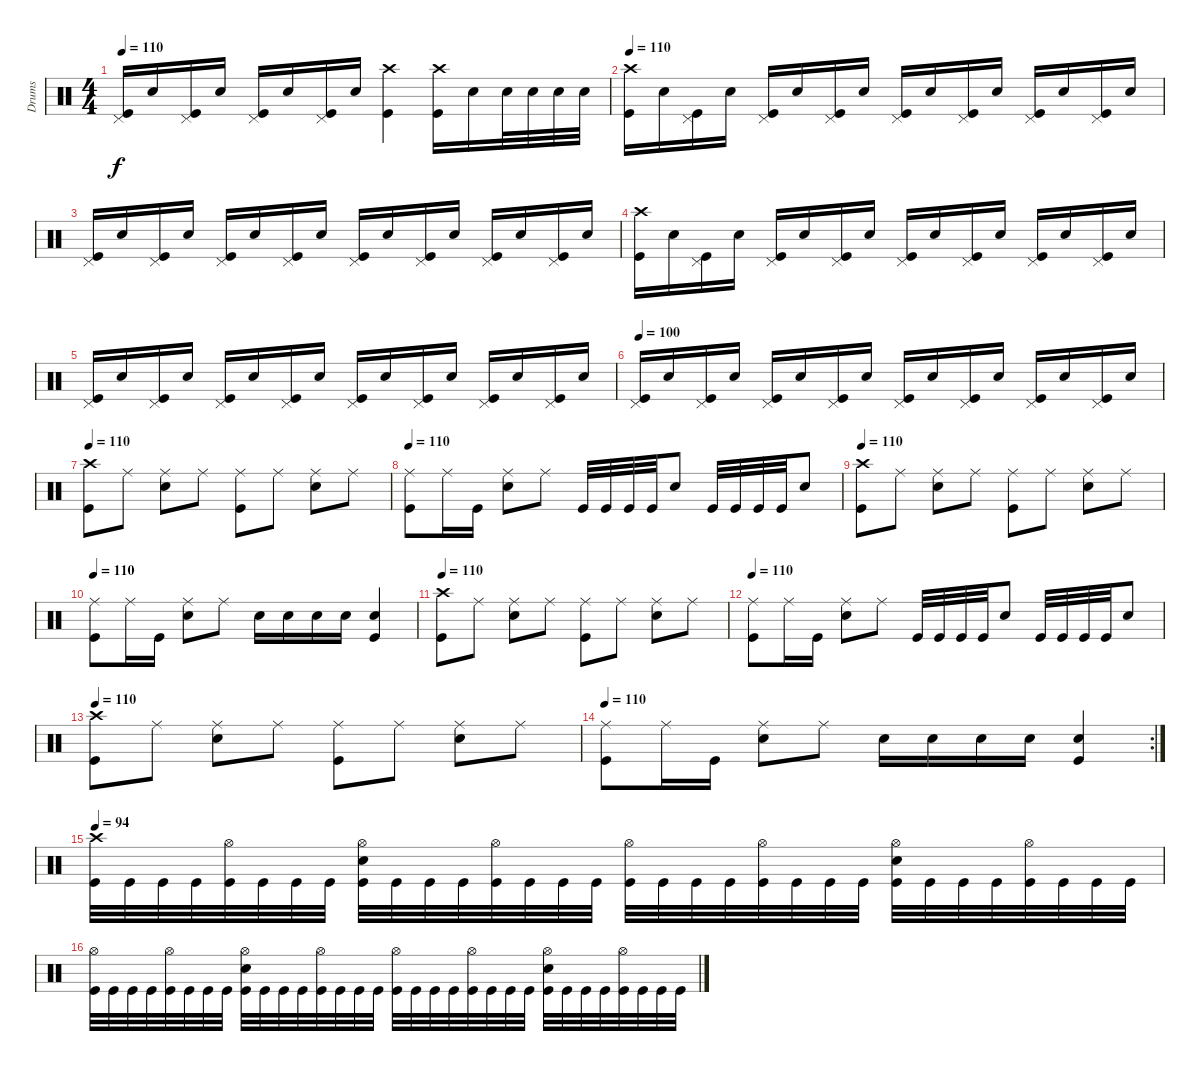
\track ("Drums" "Drums") {instrument percussion}
\staff {score}
\articulation defaults
\ts (4 4)
\tempo 110
\clef neutral
\ks c
("Pedal Hi-Hat (hit)" "Kick (hit)").16{dy f} "Electric Snare (hit)".16 ("Pedal Hi-Hat (hit)" "Kick (hit)").16 "Electric Snare (hit)".16 ("Pedal Hi-Hat (hit)" "Kick (hit)").16 "Electric Snare (hit)".16 ("Pedal Hi-Hat (hit)" "Kick (hit)").16 "Electric Snare (hit)".16 ("Crash high (hit)" "Kick (hit)").4 ("Crash high (hit)" "Kick (hit)").16 "Electric Snare (hit)".16 "Electric Snare (hit)".32 "Electric Snare (hit)".32 "Electric Snare (hit)".32 "Electric Snare (hit)".32 |
\tempo 110
("Crash high (hit)" "Kick (hit)").16 "Electric Snare (hit)".16 ("Pedal Hi-Hat (hit)" "Kick (hit)").16 "Electric Snare (hit)".16 ("Pedal Hi-Hat (hit)" "Kick (hit)").16 "Electric Snare (hit)".16 ("Pedal Hi-Hat (hit)" "Kick (hit)").16 "Electric Snare (hit)".16 ("Pedal Hi-Hat (hit)" "Kick (hit)").16 "Electric Snare (hit)".16 ("Pedal Hi-Hat (hit)" "Kick (hit)").16 "Electric Snare (hit)".16 ("Pedal Hi-Hat (hit)" "Kick (hit)").16 "Electric Snare (hit)".16 ("Pedal Hi-Hat (hit)" "Kick (hit)").16 "Electric Snare (hit)".16 |
("Pedal Hi-Hat (hit)" "Kick (hit)").16 "Electric Snare (hit)".16 ("Pedal Hi-Hat (hit)" "Kick (hit)").16 "Electric Snare (hit)".16 ("Pedal Hi-Hat (hit)" "Kick (hit)").16 "Electric Snare (hit)".16 ("Pedal Hi-Hat (hit)" "Kick (hit)").16 "Electric Snare (hit)".16 ("Pedal Hi-Hat (hit)" "Kick (hit)").16 "Electric Snare (hit)".16 ("Pedal Hi-Hat (hit)" "Kick (hit)").16 "Electric Snare (hit)".16 ("Pedal Hi-Hat (hit)" "Kick (hit)").16 "Electric Snare (hit)".16 ("Pedal Hi-Hat (hit)" "Kick (hit)").16 "Electric Snare (hit)".16 |
("Crash high (hit)" "Kick (hit)").16 "Electric Snare (hit)".16 ("Pedal Hi-Hat (hit)" "Kick (hit)").16 "Electric Snare (hit)".16 ("Pedal Hi-Hat (hit)" "Kick (hit)").16 "Electric Snare (hit)".16 ("Pedal Hi-Hat (hit)" "Kick (hit)").16 "Electric Snare (hit)".16 ("Pedal Hi-Hat (hit)" "Kick (hit)").16 "Electric Snare (hit)".16 ("Pedal Hi-Hat (hit)" "Kick (hit)").16 "Electric Snare (hit)".16 ("Pedal Hi-Hat (hit)" "Kick (hit)").16 "Electric Snare (hit)".16 ("Pedal Hi-Hat (hit)" "Kick (hit)").16 "Electric Snare (hit)".16 |
("Pedal Hi-Hat (hit)" "Kick (hit)").16 "Electric Snare (hit)".16 ("Pedal Hi-Hat (hit)" "Kick (hit)").16 "Electric Snare (hit)".16 ("Pedal Hi-Hat (hit)" "Kick (hit)").16 "Electric Snare (hit)".16 ("Pedal Hi-Hat (hit)" "Kick (hit)").16 "Electric Snare (hit)".16 ("Pedal Hi-Hat (hit)" "Kick (hit)").16 "Electric Snare (hit)".16 ("Pedal Hi-Hat (hit)" "Kick (hit)").16 "Electric Snare (hit)".16 ("Pedal Hi-Hat (hit)" "Kick (hit)").16 "Electric Snare (hit)".16 ("Pedal Hi-Hat (hit)" "Kick (hit)").16 "Electric Snare (hit)".16 |
\tempo 100
("Pedal Hi-Hat (hit)" "Kick (hit)").16 "Electric Snare (hit)".16 ("Pedal Hi-Hat (hit)" "Kick (hit)").16 "Electric Snare (hit)".16 ("Pedal Hi-Hat (hit)" "Kick (hit)").16 "Electric Snare (hit)".16 ("Pedal Hi-Hat (hit)" "Kick (hit)").16 "Electric Snare (hit)".16 ("Pedal Hi-Hat (hit)" "Kick (hit)").16 "Electric Snare (hit)".16 ("Pedal Hi-Hat (hit)" "Kick (hit)").16 "Electric Snare (hit)".16 ("Pedal Hi-Hat (hit)" "Kick (hit)").16 "Electric Snare (hit)".16 ("Pedal Hi-Hat (hit)" "Kick (hit)").16 "Electric Snare (hit)".16 |
\tempo 100
\tempo 110
("Crash high (hit)" "Kick (hit)").8 "Ride (middle)".8 ("Ride (middle)" "Electric Snare (hit)").8 "Ride (middle)".8 ("Ride (middle)" "Kick (hit)").8 "Ride (middle)".8 ("Ride (middle)" "Electric Snare (hit)").8 "Ride (middle)".8 |
\tempo 110
("Ride (middle)" "Kick (hit)").8 "Ride (middle)".16 "Kick (hit)".16 ("Ride (middle)" "Electric Snare (hit)").8 "Ride (middle)".8 "Kick (hit)".32 "Kick (hit)".32 "Kick (hit)".32 "Kick (hit)".32 "Electric Snare (hit)".8 "Kick (hit)".32 "Kick (hit)".32 "Kick (hit)".32 "Kick (hit)".32 "Electric Snare (hit)".8 |
\tempo 100
\tempo 110
("Crash high (hit)" "Kick (hit)").8 "Ride (middle)".8 ("Ride (middle)" "Electric Snare (hit)").8 "Ride (middle)".8 ("Ride (middle)" "Kick (hit)").8 "Ride (middle)".8 ("Ride (middle)" "Electric Snare (hit)").8 "Ride (middle)".8 |
\tempo 110
("Ride (middle)" "Kick (hit)").8 "Ride (middle)".16 "Kick (hit)".16 ("Ride (middle)" "Electric Snare (hit)").8 "Ride (middle)".8 "Electric Snare (hit)".16 "Electric Snare (hit)".16 "Electric Snare (hit)".16 "Electric Snare (hit)".16 ("Electric Snare (hit)" "Kick (hit)").4 |
\tempo 110
("Crash high (hit)" "Kick (hit)").8 "Ride (middle)".8 ("Ride (middle)" "Electric Snare (hit)").8 "Ride (middle)".8 ("Ride (middle)" "Kick (hit)").8 "Ride (middle)".8 ("Ride (middle)" "Electric Snare (hit)").8 "Ride (middle)".8 |
\tempo 110
("Ride (middle)" "Kick (hit)").8 "Ride (middle)".16 "Kick (hit)".16 ("Ride (middle)" "Electric Snare (hit)").8 "Ride (middle)".8 "Kick (hit)".32 "Kick (hit)".32 "Kick (hit)".32 "Kick (hit)".32 "Electric Snare (hit)".8 "Kick (hit)".32 "Kick (hit)".32 "Kick (hit)".32 "Kick (hit)".32 "Electric Snare (hit)".8 |
\tempo 110
("Crash high (hit)" "Kick (hit)").8 "Ride (middle)".8 ("Ride (middle)" "Electric Snare (hit)").8 "Ride (middle)".8 ("Ride (middle)" "Kick (hit)").8 "Ride (middle)".8 ("Ride (middle)" "Electric Snare (hit)").8 "Ride (middle)".8 |
\rc 2
\tempo 110
("Ride (middle)" "Kick (hit)").8 "Ride (middle)".16 "Kick (hit)".16 ("Ride (middle)" "Electric Snare (hit)").8 "Ride (middle)".8 "Electric Snare (hit)".16 "Electric Snare (hit)".16 "Electric Snare (hit)".16 "Electric Snare (hit)".16 ("Electric Snare (hit)" "Kick (hit)").4 |
\tempo 94
("Crash high (hit)" "Kick (hit)").32 "Kick (hit)".32 "Kick (hit)".32 "Kick (hit)".32 ("Hi-Hat (open)" "Kick (hit)").32 "Kick (hit)".32 "Kick (hit)".32 "Kick (hit)".32 ("Hi-Hat (open)" "Electric Snare (hit)" "Kick (hit)").32 "Kick (hit)".32 "Kick (hit)".32 "Kick (hit)".32 ("Hi-Hat (open)" "Kick (hit)").32 "Kick (hit)".32 "Kick (hit)".32 "Kick (hit)".32 ("Hi-Hat (open)" "Kick (hit)").32 "Kick (hit)".32 "Kick (hit)".32 "Kick (hit)".32 ("Hi-Hat (open)" "Kick (hit)").32 "Kick (hit)".32 "Kick (hit)".32 "Kick (hit)".32 ("Hi-Hat (open)" "Electric Snare (hit)" "Kick (hit)").32 "Kick (hit)".32 "Kick (hit)".32 "Kick (hit)".32 ("Hi-Hat (open)" "Kick (hit)").32 "Kick (hit)".32 "Kick (hit)".32 "Kick (hit)".32 |
("Hi-Hat (open)" "Kick (hit)").32 "Kick (hit)".32 "Kick (hit)".32 "Kick (hit)".32 ("Hi-Hat (open)" "Kick (hit)").32 "Kick (hit)".32 "Kick (hit)".32 "Kick (hit)".32 ("Hi-Hat (open)" "Electric Snare (hit)" "Kick (hit)").32 "Kick (hit)".32 "Kick (hit)".32 "Kick (hit)".32 ("Hi-Hat (open)" "Kick (hit)").32 "Kick (hit)".32 "Kick (hit)".32 "Kick (hit)".32 ("Hi-Hat (open)" "Kick (hit)").32 "Kick (hit)".32 "Kick (hit)".32 "Kick (hit)".32 ("Hi-Hat (open)" "Kick (hit)").32 "Kick (hit)".32 "Kick (hit)".32 "Kick (hit)".32 ("Hi-Hat (open)" "Electric Snare (hit)" "Kick (hit)").32 "Kick (hit)".32 "Kick (hit)".32 "Kick (hit)".32 ("Hi-Hat (open)" "Kick (hit)").32 "Kick (hit)".32 "Kick (hit)".32 "Kick (hit)".32
